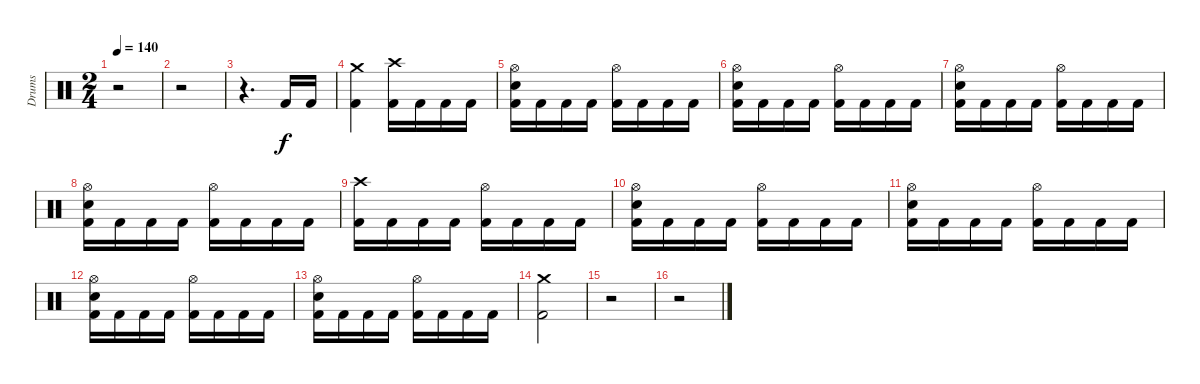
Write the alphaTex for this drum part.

\track ("Drums" "Drums") {instrument percussion}
\staff {score}
\articulation defaults
\ts (2 4)
\tempo 140
\clef neutral
\ks c
r.2{dy f} |
r.2 |
r.4{d} "Kick (hit) 2".16 "Kick (hit) 2".16 |
("Kick (hit) 2" "Crash medium (hit)").4 ("Kick (hit) 2" "Crash high (hit)").16 "Kick (hit) 2".16 "Kick (hit) 2".16 "Kick (hit) 2".16 |
("Kick (hit) 2" "Electric Snare (hit)" "Hi-Hat (open)").16 "Kick (hit) 2".16 "Kick (hit) 2".16 "Kick (hit) 2".16 ("Kick (hit) 2" "Hi-Hat (open)").16 "Kick (hit) 2".16 "Kick (hit) 2".16 "Kick (hit) 2".16 |
("Kick (hit) 2" "Electric Snare (hit)" "Hi-Hat (open)").16 "Kick (hit) 2".16 "Kick (hit) 2".16 "Kick (hit) 2".16 ("Kick (hit) 2" "Hi-Hat (open)").16 "Kick (hit) 2".16 "Kick (hit) 2".16 "Kick (hit) 2".16 |
("Kick (hit) 2" "Electric Snare (hit)" "Hi-Hat (open)").16 "Kick (hit) 2".16 "Kick (hit) 2".16 "Kick (hit) 2".16 ("Kick (hit) 2" "Hi-Hat (open)").16 "Kick (hit) 2".16 "Kick (hit) 2".16 "Kick (hit) 2".16 |
("Kick (hit) 2" "Electric Snare (hit)" "Hi-Hat (open)").16 "Kick (hit) 2".16 "Kick (hit) 2".16 "Kick (hit) 2".16 ("Kick (hit) 2" "Hi-Hat (open)").16 "Kick (hit) 2".16 "Kick (hit) 2".16 "Kick (hit) 2".16 |
("Kick (hit) 2" "Crash high (hit)").16 "Kick (hit) 2".16 "Kick (hit) 2".16 "Kick (hit) 2".16 ("Kick (hit) 2" "Hi-Hat (open)").16 "Kick (hit) 2".16 "Kick (hit) 2".16 "Kick (hit) 2".16 |
("Kick (hit) 2" "Electric Snare (hit)" "Hi-Hat (open)").16 "Kick (hit) 2".16 "Kick (hit) 2".16 "Kick (hit) 2".16 ("Kick (hit) 2" "Hi-Hat (open)").16 "Kick (hit) 2".16 "Kick (hit) 2".16 "Kick (hit) 2".16 |
("Kick (hit) 2" "Electric Snare (hit)" "Hi-Hat (open)").16 "Kick (hit) 2".16 "Kick (hit) 2".16 "Kick (hit) 2".16 ("Kick (hit) 2" "Hi-Hat (open)").16 "Kick (hit) 2".16 "Kick (hit) 2".16 "Kick (hit) 2".16 |
("Kick (hit) 2" "Electric Snare (hit)" "Hi-Hat (open)").16 "Kick (hit) 2".16 "Kick (hit) 2".16 "Kick (hit) 2".16 ("Kick (hit) 2" "Hi-Hat (open)").16 "Kick (hit) 2".16 "Kick (hit) 2".16 "Kick (hit) 2".16 |
("Kick (hit) 2" "Electric Snare (hit)" "Hi-Hat (open)").16 "Kick (hit) 2".16 "Kick (hit) 2".16 "Kick (hit) 2".16 ("Kick (hit) 2" "Hi-Hat (open)").16 "Kick (hit) 2".16 "Kick (hit) 2".16 "Kick (hit) 2".16 |
("Kick (hit) 2" "Crash medium (hit)").2 |
r.2 |
r.2
